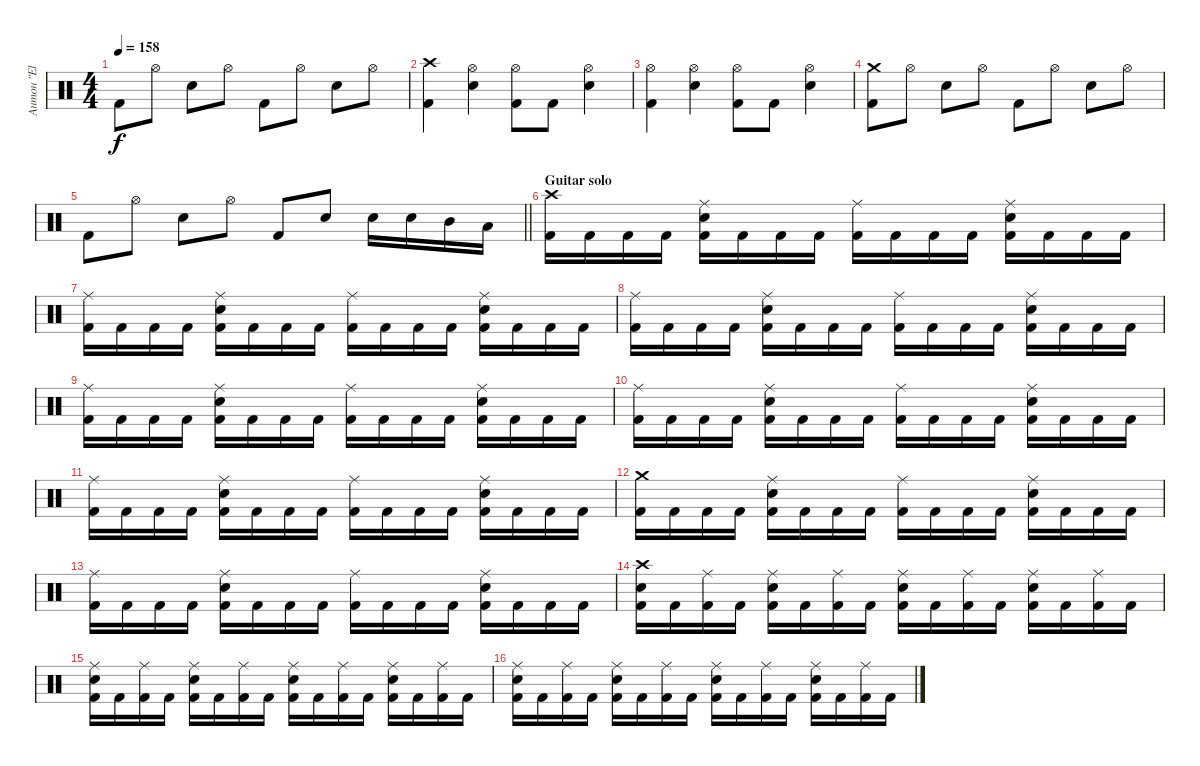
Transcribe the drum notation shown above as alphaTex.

\track ("Антон \"El Bastardo\" Смольянин" "Антон \"El ") {instrument percussion}
\staff {score}
\articulation defaults
\ts (4 4)
\tempo 158
\clef neutral
\ks c "Kick (hit) 2".8{dy f} "Hi-Hat (open)".8 "Electric Snare (hit)".8 "Hi-Hat (open)".8 "Kick (hit) 2".8 "Hi-Hat (open)".8 "Electric Snare (hit)".8 "Hi-Hat (open)".8
|
("Crash high (hit)" "Kick (hit) 2").4 ("Hi-Hat (open)" "Electric Snare (hit)").4 ("Hi-Hat (open)" "Kick (hit) 2").8 "Kick (hit) 2".8 ("Hi-Hat (open)" "Electric Snare (hit)").4 |
("Hi-Hat (open)" "Kick (hit) 2").4 ("Hi-Hat (open)" "Electric Snare (hit)").4 ("Hi-Hat (open)" "Kick (hit) 2").8 "Kick (hit) 2".8 ("Hi-Hat (open)" "Electric Snare (hit)").4 |
("Crash medium (hit)" "Kick (hit) 2").8 "Hi-Hat (open)".8 "Electric Snare (hit)".8 "Hi-Hat (open)".8 "Kick (hit) 2".8 "Hi-Hat (open)".8 "Electric Snare (hit)".8 "Hi-Hat (open)".8 |
\barLineRight lightlight "Kick (hit) 2".8 "Hi-Hat (open)".8 "Electric Snare (hit)".8 "Hi-Hat (open)".8 "Kick (hit) 2".8 "Electric Snare (hit)".8 "Electric Snare (hit)".16 "Electric Snare (hit)".16 "Mid Tom (hit)".16 "Low Tom (hit)".16
|
\section ("" "Guitar solo")
("Crash high (hit)" "Kick (hit) 2").16 "Kick (hit) 2".16 "Kick (hit) 2".16 "Kick (hit) 2".16 ("Ride (middle)" "Electric Snare (hit)" "Kick (hit) 2").16 "Kick (hit) 2".16 "Kick (hit) 2".16 "Kick (hit) 2".16 ("Ride (middle)" "Kick (hit) 2").16 "Kick (hit) 2".16 "Kick (hit) 2".16 "Kick (hit) 2".16 ("Ride (middle)" "Electric Snare (hit)" "Kick (hit) 2").16 "Kick (hit) 2".16 "Kick (hit) 2".16 "Kick (hit) 2".16 |
("Ride (middle)" "Kick (hit) 2").16 "Kick (hit) 2".16 "Kick (hit) 2".16 "Kick (hit) 2".16 ("Ride (middle)" "Electric Snare (hit)" "Kick (hit) 2").16 "Kick (hit) 2".16 "Kick (hit) 2".16 "Kick (hit) 2".16 ("Ride (middle)" "Kick (hit) 2").16 "Kick (hit) 2".16 "Kick (hit) 2".16 "Kick (hit) 2".16 ("Ride (middle)" "Electric Snare (hit)" "Kick (hit) 2").16 "Kick (hit) 2".16 "Kick (hit) 2".16 "Kick (hit) 2".16 |
("Ride (middle)" "Kick (hit) 2").16 "Kick (hit) 2".16 "Kick (hit) 2".16 "Kick (hit) 2".16 ("Ride (middle)" "Electric Snare (hit)" "Kick (hit) 2").16 "Kick (hit) 2".16 "Kick (hit) 2".16 "Kick (hit) 2".16 ("Ride (middle)" "Kick (hit) 2").16 "Kick (hit) 2".16 "Kick (hit) 2".16 "Kick (hit) 2".16 ("Ride (middle)" "Electric Snare (hit)" "Kick (hit) 2").16 "Kick (hit) 2".16 "Kick (hit) 2".16 "Kick (hit) 2".16 |
("Ride (middle)" "Kick (hit) 2").16 "Kick (hit) 2".16 "Kick (hit) 2".16 "Kick (hit) 2".16 ("Ride (middle)" "Electric Snare (hit)" "Kick (hit) 2").16 "Kick (hit) 2".16 "Kick (hit) 2".16 "Kick (hit) 2".16 ("Ride (middle)" "Kick (hit) 2").16 "Kick (hit) 2".16 "Kick (hit) 2".16 "Kick (hit) 2".16 ("Ride (middle)" "Electric Snare (hit)" "Kick (hit) 2").16 "Kick (hit) 2".16 "Kick (hit) 2".16 "Kick (hit) 2".16 |
("Ride (middle)" "Kick (hit) 2").16 "Kick (hit) 2".16 "Kick (hit) 2".16 "Kick (hit) 2".16 ("Ride (middle)" "Electric Snare (hit)" "Kick (hit) 2").16 "Kick (hit) 2".16 "Kick (hit) 2".16 "Kick (hit) 2".16 ("Ride (middle)" "Kick (hit) 2").16 "Kick (hit) 2".16 "Kick (hit) 2".16 "Kick (hit) 2".16 ("Ride (middle)" "Electric Snare (hit)" "Kick (hit) 2").16 "Kick (hit) 2".16 "Kick (hit) 2".16 "Kick (hit) 2".16 |
("Ride (middle)" "Kick (hit) 2").16 "Kick (hit) 2".16 "Kick (hit) 2".16 "Kick (hit) 2".16 ("Ride (middle)" "Electric Snare (hit)" "Kick (hit) 2").16 "Kick (hit) 2".16 "Kick (hit) 2".16 "Kick (hit) 2".16 ("Ride (middle)" "Kick (hit) 2").16 "Kick (hit) 2".16 "Kick (hit) 2".16 "Kick (hit) 2".16 ("Ride (middle)" "Electric Snare (hit)" "Kick (hit) 2").16 "Kick (hit) 2".16 "Kick (hit) 2".16 "Kick (hit) 2".16 |
("Crash medium (hit)" "Kick (hit) 2").16 "Kick (hit) 2".16 "Kick (hit) 2".16 "Kick (hit) 2".16 ("Ride (middle)" "Electric Snare (hit)" "Kick (hit) 2").16 "Kick (hit) 2".16 "Kick (hit) 2".16 "Kick (hit) 2".16 ("Ride (middle)" "Kick (hit) 2").16 "Kick (hit) 2".16 "Kick (hit) 2".16 "Kick (hit) 2".16 ("Ride (middle)" "Electric Snare (hit)" "Kick (hit) 2").16 "Kick (hit) 2".16 "Kick (hit) 2".16 "Kick (hit) 2".16 |
("Ride (middle)" "Kick (hit) 2").16 "Kick (hit) 2".16 "Kick (hit) 2".16 "Kick (hit) 2".16 ("Ride (middle)" "Electric Snare (hit)" "Kick (hit) 2").16 "Kick (hit) 2".16 "Kick (hit) 2".16 "Kick (hit) 2".16 ("Ride (middle)" "Kick (hit) 2").16 "Kick (hit) 2".16 "Kick (hit) 2".16 "Kick (hit) 2".16 ("Ride (middle)" "Electric Snare (hit)" "Kick (hit) 2").16 "Kick (hit) 2".16 "Kick (hit) 2".16 "Kick (hit) 2".16 |
("Crash high (hit)" "Electric Snare (hit)" "Kick (hit) 2").16 "Kick (hit) 2".16 ("Ride (middle)" "Kick (hit) 2").16 "Kick (hit) 2".16 ("Ride (middle)" "Electric Snare (hit)" "Kick (hit) 2").16 "Kick (hit) 2".16 ("Ride (middle)" "Kick (hit) 2").16 "Kick (hit) 2".16 ("Ride (middle)" "Electric Snare (hit)" "Kick (hit) 2").16 "Kick (hit) 2".16 ("Ride (middle)" "Kick (hit) 2").16 "Kick (hit) 2".16 ("Ride (middle)" "Electric Snare (hit)" "Kick (hit) 2").16 "Kick (hit) 2".16 ("Ride (middle)" "Kick (hit) 2").16 "Kick (hit) 2".16 |
("Ride (middle)" "Electric Snare (hit)" "Kick (hit) 2").16 "Kick (hit) 2".16 ("Ride (middle)" "Kick (hit) 2").16 "Kick (hit) 2".16 ("Ride (middle)" "Electric Snare (hit)" "Kick (hit) 2").16 "Kick (hit) 2".16 ("Ride (middle)" "Kick (hit) 2").16 "Kick (hit) 2".16 ("Ride (middle)" "Electric Snare (hit)" "Kick (hit) 2").16 "Kick (hit) 2".16 ("Ride (middle)" "Kick (hit) 2").16 "Kick (hit) 2".16 ("Ride (middle)" "Electric Snare (hit)" "Kick (hit) 2").16 "Kick (hit) 2".16 ("Ride (middle)" "Kick (hit) 2").16 "Kick (hit) 2".16 |
("Ride (middle)" "Electric Snare (hit)" "Kick (hit) 2").16 "Kick (hit) 2".16 ("Ride (middle)" "Kick (hit) 2").16 "Kick (hit) 2".16 ("Ride (middle)" "Electric Snare (hit)" "Kick (hit) 2").16 "Kick (hit) 2".16 ("Ride (middle)" "Kick (hit) 2").16 "Kick (hit) 2".16 ("Ride (middle)" "Electric Snare (hit)" "Kick (hit) 2").16 "Kick (hit) 2".16 ("Ride (middle)" "Kick (hit) 2").16 "Kick (hit) 2".16 ("Ride (middle)" "Electric Snare (hit)" "Kick (hit) 2").16 "Kick (hit) 2".16 ("Ride (middle)" "Kick (hit) 2").16 "Kick (hit) 2".16
